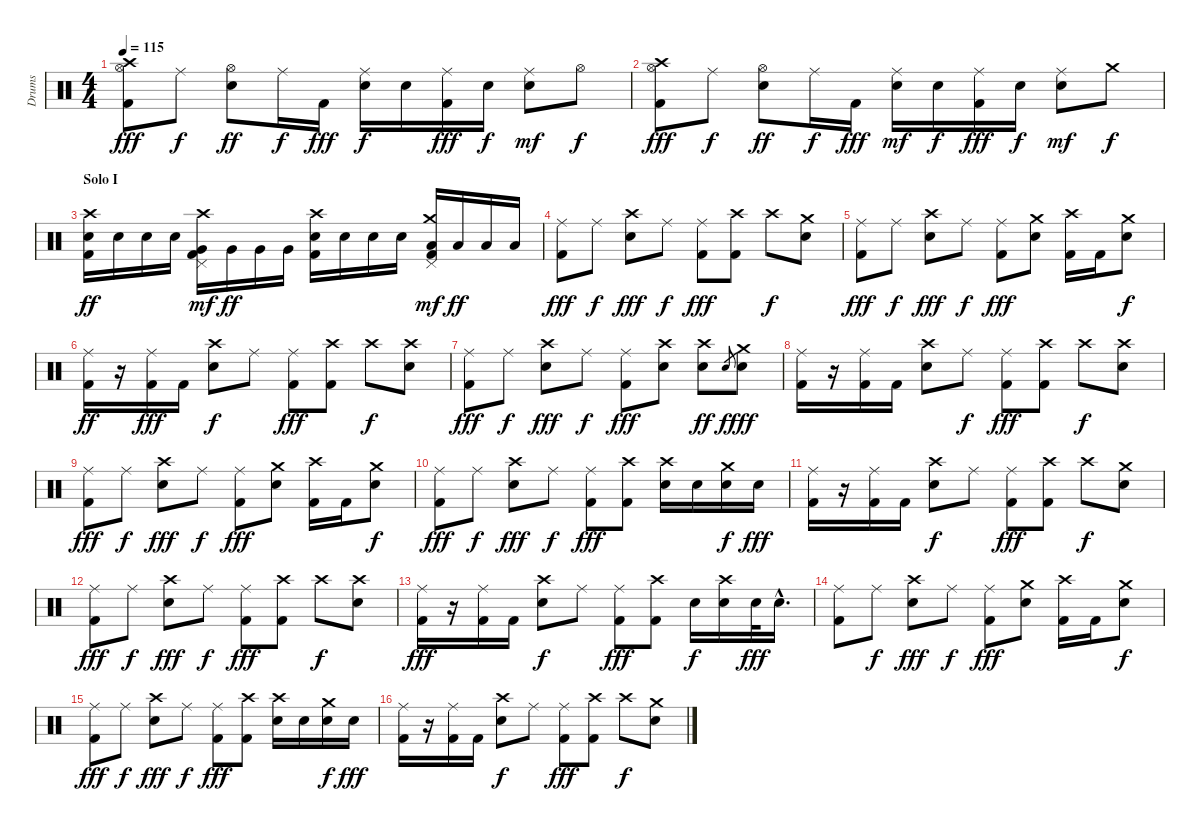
\track ("Drums" "Drums") {instrument percussion}
\staff {score}
\articulation defaults
\ts (4 4)
\tempo 115
\clef neutral
\ks c
("Hi-Hat (open)" "Crash high (hit)" "Kick (hit) 2").8{dy fff} "Ride (middle)".8{dy f} ("Hi-Hat (open)" "Electric Snare (hit)").8{dy ff} "Ride (middle)".16{dy f} "Kick (hit) 2".16{dy fff} ("Ride (middle)" "Electric Snare (hit)").16{dy f} "Electric Snare (hit)".16 ("Ride (middle)" "Kick (hit) 2").16{dy fff} "Electric Snare (hit)".16{dy f} ("Ride (middle)" "Snare (hit) 2").8{dy mf} "Hi-Hat (open)".8{dy f} |
("Hi-Hat (open)" "Crash high (hit)" "Kick (hit) 2").8{dy fff} "Ride (middle)".8{dy f} ("Hi-Hat (open)" "Electric Snare (hit)").8{dy ff} "Ride (middle)".16{dy f} "Kick (hit) 2".16{dy fff} ("Ride (middle)" "Snare (hit) 2").16{dy mf} "Electric Snare (hit)".16{dy f} ("Ride (middle)" "Kick (hit) 2").16{dy fff} "Electric Snare (hit)".16{dy f} ("Ride (middle)" "Snare (hit) 2").8{dy mf} "Crash medium (hit)".8{dy f} |
\section ("" "Solo I")
("Crash high (hit)" "Electric Snare (hit)" "Kick (hit) 2").16{dy ff volume 11} "Electric Snare (hit)".16 "Electric Snare (hit)".16 "Electric Snare (hit)".16 ("Crash high (hit)" "Very Low Tom (hit)" "Kick (hit) 2" "Pedal Hi-Hat (hit)").16{dy mf volume 16} "Very Low Tom (hit)".16{dy ff} "Very Low Tom (hit)".16 "Very Low Tom (hit)".16 ("Crash high (hit)" "Electric Snare (hit)" "Kick (hit) 2").16{volume 11} "Electric Snare (hit)".16 "Electric Snare (hit)".16 "Electric Snare (hit)".16 ("Crash medium (hit)" "Low Floor Tom (hit)" "Kick (hit) 2" "Pedal Hi-Hat (hit)").16{dy mf volume 16} "Low Floor Tom (hit)".16{dy ff} "Low Floor Tom (hit)".16 "Low Floor Tom (hit)".16 |
("Ride (middle)" "Kick (hit) 2").8{dy fff volume 12} "Ride (middle)".8{dy f} ("Crash high (hit)" "Electric Snare (hit)").8{dy fff} "Ride (middle)".8{dy f} ("Ride (middle)" "Kick (hit) 2").8{dy fff} ("Crash high (hit)" "Kick (hit) 2").8 "Crash high (hit)".8{dy f} ("Crash medium (hit)" "Snare (hit) 2").8 |
("Ride (middle)" "Kick (hit) 2").8{dy fff} "Ride (middle)".8{dy f} ("Crash high (hit)" "Electric Snare (hit)").8{dy fff} "Ride (middle)".8{dy f} ("Ride (middle)" "Kick (hit) 2").8{dy fff} ("Crash medium (hit)" "Electric Snare (hit)").8 ("Crash high (hit)" "Kick (hit) 2").16 "Kick (hit) 2".16 ("Crash medium (hit)" "Snare (hit) 2").8{dy f} |
("Ride (middle)" "Kick (hit) 2").16{dy ff} r.16 ("Ride (middle)" "Kick (hit) 2").16{dy fff} "Kick (hit) 2".16 ("Crash high (hit)" "Snare (hit) 2").8{dy f} "Ride (middle)".8 ("Ride (middle)" "Kick (hit) 2").8{dy fff} ("Crash high (hit)" "Kick (hit) 2").8 "Crash high (hit)".8{dy f} ("Crash high (hit)" "Snare (hit) 2").8 |
("Ride (middle)" "Kick (hit) 2").8{dy fff} "Ride (middle)".8{dy f} ("Crash high (hit)" "Electric Snare (hit)").8{dy fff} "Ride (middle)".8{dy f} ("Ride (middle)" "Kick (hit) 2").8{dy fff} ("Crash high (hit)" "Electric Snare (hit)").8 ("Crash high (hit)" "Electric Snare (hit)").8{dy ff} "Snare (hit) 2".8{gr dy f} ("Crash medium (hit)" "Electric Snare (hit)").8{dy fff} |
("Ride (middle)" "Kick (hit) 2").16 r.16 ("Ride (middle)" "Kick (hit) 2").16 "Kick (hit) 2".16 ("Crash high (hit)" "Electric Snare (hit)").8 "Ride (middle)".8{dy f} ("Ride (middle)" "Kick (hit) 2").8{dy fff} ("Crash high (hit)" "Kick (hit) 2").8 "Crash high (hit)".8{dy f} ("Crash high (hit)" "Snare (hit) 2").8 |
("Ride (middle)" "Kick (hit) 2").8{dy fff} "Ride (middle)".8{dy f} ("Crash high (hit)" "Electric Snare (hit)").8{dy fff} "Ride (middle)".8{dy f} ("Ride (middle)" "Kick (hit) 2").8{dy fff} ("Crash medium (hit)" "Electric Snare (hit)").8 ("Crash high (hit)" "Kick (hit) 2").16 "Kick (hit) 2".16 ("Crash medium (hit)" "Snare (hit) 2").8{dy f} |
("Ride (middle)" "Kick (hit) 2").8{dy fff} "Ride (middle)".8{dy f} ("Crash high (hit)" "Electric Snare (hit)").8{dy fff} "Ride (middle)".8{dy f} ("Ride (middle)" "Kick (hit) 2").8{dy fff} ("Crash high (hit)" "Kick (hit) 2").8 ("Crash high (hit)" "Electric Snare (hit)").16 "Electric Snare (hit)".16 ("Crash medium (hit)" "Snare (hit) 2").16{dy f} "Electric Snare (hit)".16{dy fff} |
("Ride (middle)" "Kick (hit) 2").16 r.16 ("Ride (middle)" "Kick (hit) 2").16 "Kick (hit) 2".16 ("Crash high (hit)" "Snare (hit) 2").8{dy f} "Ride (middle)".8 ("Ride (middle)" "Kick (hit) 2").8{dy fff} ("Crash high (hit)" "Kick (hit) 2").8 "Crash high (hit)".8{dy f} ("Crash medium (hit)" "Snare (hit) 2").8 |
("Ride (middle)" "Kick (hit) 2").8{dy fff} "Ride (middle)".8{dy f} ("Crash high (hit)" "Electric Snare (hit)").8{dy fff} "Ride (middle)".8{dy f} ("Ride (middle)" "Kick (hit) 2").8{dy fff} ("Crash high (hit)" "Kick (hit) 2").8 "Crash high (hit)".8{dy f} ("Crash high (hit)" "Snare (hit) 2").8 |
("Ride (middle)" "Kick (hit) 2").16{dy fff} r.16 ("Ride (middle)" "Kick (hit) 2").16 "Kick (hit) 2".16 ("Crash high (hit)" "Snare (hit) 2").8{dy f} "Ride (middle)".8 ("Ride (middle)" "Kick (hit) 2").8{dy fff} ("Crash high (hit)" "Kick (hit) 2").8 "Snare (hit) 2".16{dy f} ("Crash high (hit)" "Snare (hit) 2").16 "Snare (hit) 2".32{dy fff} "Snare (hit) 2"{hac}.16{d} |
("Ride (middle)" "Kick (hit) 2").8 "Ride (middle)".8{dy f} ("Crash high (hit)" "Electric Snare (hit)").8{dy fff} "Ride (middle)".8{dy f} ("Ride (middle)" "Kick (hit) 2").8{dy fff} ("Crash medium (hit)" "Electric Snare (hit)").8 ("Crash high (hit)" "Kick (hit) 2").16 "Kick (hit) 2".16 ("Crash medium (hit)" "Snare (hit) 2").8{dy f} |
("Ride (middle)" "Kick (hit) 2").8{dy fff} "Ride (middle)".8{dy f} ("Crash high (hit)" "Electric Snare (hit)").8{dy fff} "Ride (middle)".8{dy f} ("Ride (middle)" "Kick (hit) 2").8{dy fff} ("Crash high (hit)" "Kick (hit) 2").8 ("Crash high (hit)" "Electric Snare (hit)").16 "Electric Snare (hit)".16 ("Crash medium (hit)" "Snare (hit) 2").16{dy f} "Electric Snare (hit)".16{dy fff} |
("Ride (middle)" "Kick (hit) 2").16 r.16 ("Ride (middle)" "Kick (hit) 2").16 "Kick (hit) 2".16 ("Crash high (hit)" "Snare (hit) 2").8{dy f} "Ride (middle)".8 ("Ride (middle)" "Kick (hit) 2").8{dy fff} ("Crash high (hit)" "Kick (hit) 2").8 "Crash high (hit)".8{dy f} ("Crash medium (hit)" "Snare (hit) 2").8
